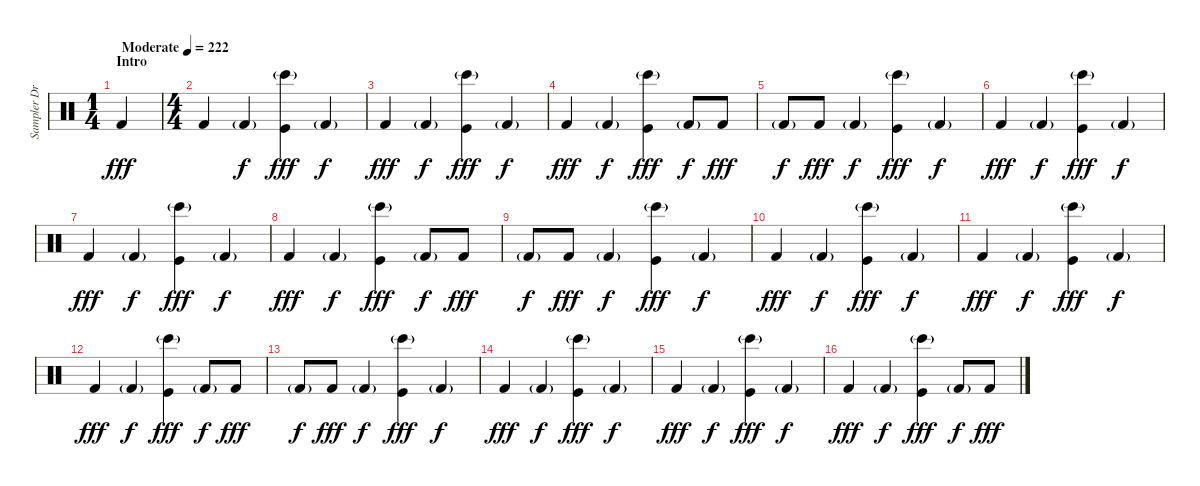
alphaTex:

\track ("Sampler Drums 2" "Sampler Dr") {instrument percussion}
\staff {score}
\articulation defaults
\ts (1 4)
\section ("" "Intro")
\tempo (222 "Moderate")
\clef neutral
\ks c "Kick (hit) 2".4{dy fff volume 3}
|
\ts (4 4)
"Kick (hit) 2".4{volume 10} "Kick (hit) 2"{g}.4{dy f} ("Kick (hit)" "Bongo High (hit)"{g}).4{dy fff} "Kick (hit) 2"{g}.4{dy f} |
"Kick (hit) 2".4{dy fff} "Kick (hit) 2"{g}.4{dy f} ("Kick (hit)" "Bongo High (hit)"{g}).4{dy fff} "Kick (hit) 2"{g}.4{dy f} |
"Kick (hit) 2".4{dy fff} "Kick (hit) 2"{g}.4{dy f} ("Kick (hit)" "Bongo High (hit)"{g}).4{dy fff} "Kick (hit) 2"{g}.8{dy f} "Kick (hit) 2".8{dy fff} |
"Kick (hit) 2"{g}.8{dy f volume 10} "Kick (hit) 2".8{dy fff} "Kick (hit) 2"{g}.4{dy f} ("Kick (hit)" "Bongo High (hit)"{g}).4{dy fff} "Kick (hit) 2"{g}.4{dy f} |
"Kick (hit) 2".4{dy fff volume 10} "Kick (hit) 2"{g}.4{dy f} ("Kick (hit)" "Bongo High (hit)"{g}).4{dy fff} "Kick (hit) 2"{g}.4{dy f} |
"Kick (hit) 2".4{dy fff} "Kick (hit) 2"{g}.4{dy f} ("Kick (hit)" "Bongo High (hit)"{g}).4{dy fff} "Kick (hit) 2"{g}.4{dy f} |
"Kick (hit) 2".4{dy fff} "Kick (hit) 2"{g}.4{dy f} ("Kick (hit)" "Bongo High (hit)"{g}).4{dy fff} "Kick (hit) 2"{g}.8{dy f} "Kick (hit) 2".8{dy fff} |
"Kick (hit) 2"{g}.8{dy f} "Kick (hit) 2".8{dy fff} "Kick (hit) 2"{g}.4{dy f} ("Kick (hit)" "Bongo High (hit)"{g}).4{dy fff} "Kick (hit) 2"{g}.4{dy f} |
"Kick (hit) 2".4{dy fff volume 10} "Kick (hit) 2"{g}.4{dy f} ("Kick (hit)" "Bongo High (hit)"{g}).4{dy fff} "Kick (hit) 2"{g}.4{dy f} |
"Kick (hit) 2".4{dy fff} "Kick (hit) 2"{g}.4{dy f} ("Kick (hit)" "Bongo High (hit)"{g}).4{dy fff} "Kick (hit) 2"{g}.4{dy f} |
"Kick (hit) 2".4{dy fff} "Kick (hit) 2"{g}.4{dy f} ("Kick (hit)" "Bongo High (hit)"{g}).4{dy fff} "Kick (hit) 2"{g}.8{dy f} "Kick (hit) 2".8{dy fff} |
"Kick (hit) 2"{g}.8{dy f} "Kick (hit) 2".8{dy fff} "Kick (hit) 2"{g}.4{dy f} ("Kick (hit)" "Bongo High (hit)"{g}).4{dy fff} "Kick (hit) 2"{g}.4{dy f} |
"Kick (hit) 2".4{dy fff volume 10} "Kick (hit) 2"{g}.4{dy f} ("Kick (hit)" "Bongo High (hit)"{g}).4{dy fff} "Kick (hit) 2"{g}.4{dy f} |
"Kick (hit) 2".4{dy fff} "Kick (hit) 2"{g}.4{dy f} ("Kick (hit)" "Bongo High (hit)"{g}).4{dy fff} "Kick (hit) 2"{g}.4{dy f} |
"Kick (hit) 2".4{dy fff} "Kick (hit) 2"{g}.4{dy f} ("Kick (hit)" "Bongo High (hit)"{g}).4{dy fff} "Kick (hit) 2"{g}.8{dy f} "Kick (hit) 2".8{dy fff}
